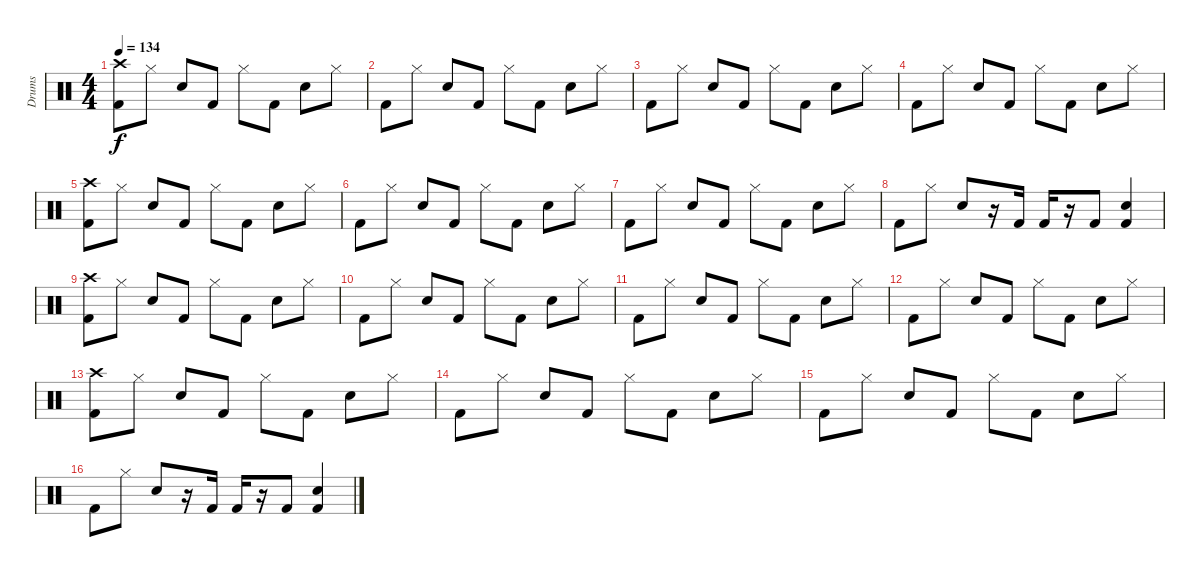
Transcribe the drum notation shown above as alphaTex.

\track ("Drums" "Drums") {instrument percussion}
\staff {score}
\articulation defaults
\ts (4 4)
\tempo 134
\clef neutral
\ks c
("Crash high (hit)" "Kick (hit) 2").8{dy f} "Hi-Hat (closed)".8 "Electric Snare (hit)".8 "Kick (hit) 2".8 "Hi-Hat (closed)".8 "Kick (hit) 2".8 "Electric Snare (hit)".8 "Hi-Hat (closed)".8 |
"Kick (hit) 2".8 "Hi-Hat (closed)".8 "Electric Snare (hit)".8 "Kick (hit) 2".8 "Hi-Hat (closed)".8 "Kick (hit) 2".8 "Electric Snare (hit)".8 "Hi-Hat (closed)".8 |
"Kick (hit) 2".8 "Hi-Hat (closed)".8 "Electric Snare (hit)".8 "Kick (hit) 2".8 "Hi-Hat (closed)".8 "Kick (hit) 2".8 "Electric Snare (hit)".8 "Hi-Hat (closed)".8 |
"Kick (hit) 2".8 "Hi-Hat (closed)".8 "Electric Snare (hit)".8 "Kick (hit) 2".8 "Hi-Hat (closed)".8 "Kick (hit) 2".8 "Electric Snare (hit)".8 "Hi-Hat (closed)".8 |
("Crash high (hit)" "Kick (hit) 2").8 "Hi-Hat (closed)".8 "Electric Snare (hit)".8 "Kick (hit) 2".8 "Hi-Hat (closed)".8 "Kick (hit) 2".8 "Electric Snare (hit)".8 "Hi-Hat (closed)".8 |
"Kick (hit) 2".8 "Hi-Hat (closed)".8 "Electric Snare (hit)".8 "Kick (hit) 2".8 "Hi-Hat (closed)".8 "Kick (hit) 2".8 "Electric Snare (hit)".8 "Hi-Hat (closed)".8 |
"Kick (hit) 2".8 "Hi-Hat (closed)".8 "Electric Snare (hit)".8 "Kick (hit) 2".8 "Hi-Hat (closed)".8 "Kick (hit) 2".8 "Electric Snare (hit)".8 "Hi-Hat (closed)".8 |
"Kick (hit) 2".8 "Hi-Hat (closed)".8 "Electric Snare (hit)".8 r.16 "Kick (hit) 2".16 "Kick (hit) 2".16 r.16 "Kick (hit) 2".8 ("Electric Snare (hit)" "Kick (hit) 2").4 |
("Crash high (hit)" "Kick (hit) 2").8 "Hi-Hat (closed)".8 "Electric Snare (hit)".8 "Kick (hit) 2".8 "Hi-Hat (closed)".8 "Kick (hit) 2".8 "Electric Snare (hit)".8 "Hi-Hat (closed)".8 |
"Kick (hit) 2".8 "Hi-Hat (closed)".8 "Electric Snare (hit)".8 "Kick (hit) 2".8 "Hi-Hat (closed)".8 "Kick (hit) 2".8 "Electric Snare (hit)".8 "Hi-Hat (closed)".8 |
"Kick (hit) 2".8 "Hi-Hat (closed)".8 "Electric Snare (hit)".8 "Kick (hit) 2".8 "Hi-Hat (closed)".8 "Kick (hit) 2".8 "Electric Snare (hit)".8 "Hi-Hat (closed)".8 |
"Kick (hit) 2".8 "Hi-Hat (closed)".8 "Electric Snare (hit)".8 "Kick (hit) 2".8 "Hi-Hat (closed)".8 "Kick (hit) 2".8 "Electric Snare (hit)".8 "Hi-Hat (closed)".8 |
("Crash high (hit)" "Kick (hit) 2").8 "Hi-Hat (closed)".8 "Electric Snare (hit)".8 "Kick (hit) 2".8 "Hi-Hat (closed)".8 "Kick (hit) 2".8 "Electric Snare (hit)".8 "Hi-Hat (closed)".8 |
"Kick (hit) 2".8 "Hi-Hat (closed)".8 "Electric Snare (hit)".8 "Kick (hit) 2".8 "Hi-Hat (closed)".8 "Kick (hit) 2".8 "Electric Snare (hit)".8 "Hi-Hat (closed)".8 |
"Kick (hit) 2".8 "Hi-Hat (closed)".8 "Electric Snare (hit)".8 "Kick (hit) 2".8 "Hi-Hat (closed)".8 "Kick (hit) 2".8 "Electric Snare (hit)".8 "Hi-Hat (closed)".8 |
"Kick (hit) 2".8 "Hi-Hat (closed)".8 "Electric Snare (hit)".8 r.16 "Kick (hit) 2".16 "Kick (hit) 2".16 r.16 "Kick (hit) 2".8 ("Electric Snare (hit)" "Kick (hit) 2").4
